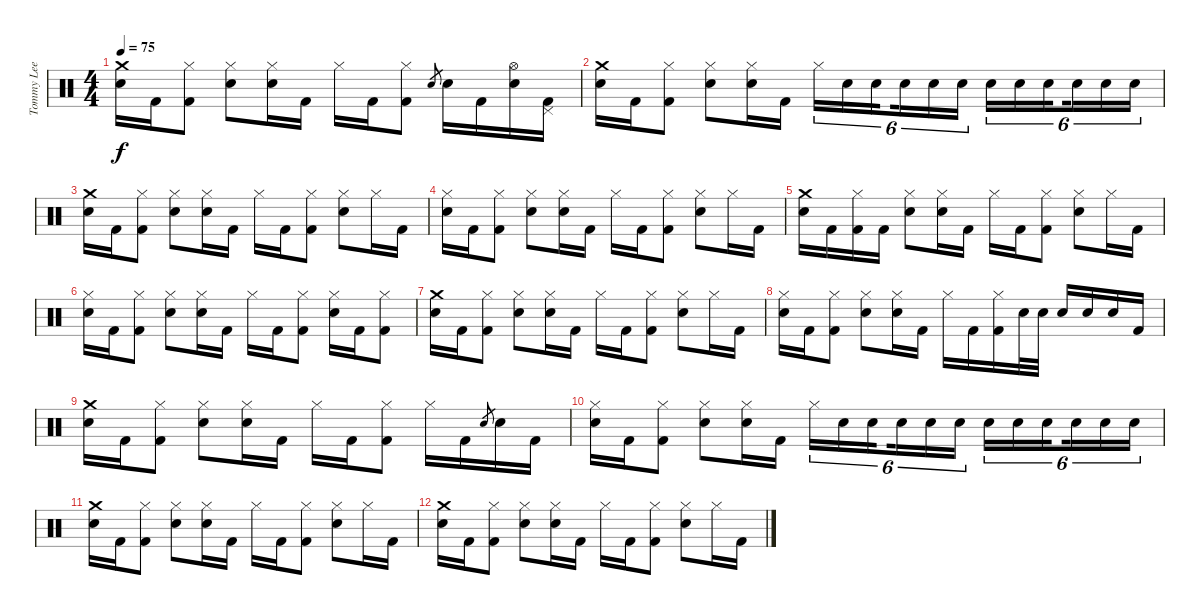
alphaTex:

\track ("Tommy Lee - Drums" "Tommy Lee ") {instrument percussion}
\staff {score}
\articulation defaults
\ts (4 4)
\tempo 75
\clef neutral
\ks c
("Crash medium (hit)" "Snare (hit) 2").16{dy f} "Kick (hit) 2".16 ("Hi-Hat (closed)" "Kick (hit) 2").8 ("Hi-Hat (closed)" "Snare (hit) 2").8 ("Hi-Hat (closed)" "Snare (hit) 2").16 "Kick (hit) 2".16 "Hi-Hat (closed)".16 "Kick (hit) 2".16 ("Hi-Hat (closed)" "Kick (hit) 2").8 "Snare (hit) 2".8{gr} "Snare (hit) 2".16 "Kick (hit) 2".16 ("Hi-Hat (open)" "Snare (hit) 2").16 ("Pedal Hi-Hat (hit)" "Kick (hit) 2").16 |
("Crash medium (hit)" "Snare (hit) 2").16 "Kick (hit) 2".16 ("Hi-Hat (closed)" "Kick (hit) 2").8 ("Hi-Hat (closed)" "Snare (hit) 2").8 ("Hi-Hat (closed)" "Snare (hit) 2").16 "Kick (hit) 2".16 "Hi-Hat (closed)".16{tu (6 4)} "Snare (hit) 2".16{tu (6 4)} "Snare (hit) 2".16{tu (6 4) beam splitsecondary} "Snare (hit) 2".16{tu (6 4)} "Snare (hit) 2".16{tu (6 4)} "Snare (hit) 2".16{tu (6 4)} "Snare (hit) 2".16{tu (6 4)} "Snare (hit) 2".16{tu (6 4)} "Snare (hit) 2".16{tu (6 4) beam splitsecondary} "Snare (hit) 2".16{tu (6 4)} "Snare (hit) 2".16{tu (6 4)} "Snare (hit) 2".16{tu (6 4)} |
("Crash medium (hit)" "Snare (hit) 2").16 "Kick (hit) 2".16 ("Hi-Hat (closed)" "Kick (hit) 2").8 ("Hi-Hat (closed)" "Snare (hit) 2").8 ("Hi-Hat (closed)" "Snare (hit) 2").16 "Kick (hit) 2".16 "Hi-Hat (closed)".16 "Kick (hit) 2".16 ("Hi-Hat (closed)" "Kick (hit) 2").8 ("Hi-Hat (closed)" "Snare (hit) 2").8 "Hi-Hat (closed)".16 "Kick (hit) 2".16 |
("Hi-Hat (closed)" "Snare (hit) 2").16 "Kick (hit) 2".16 ("Hi-Hat (closed)" "Kick (hit) 2").8 ("Hi-Hat (closed)" "Snare (hit) 2").8 ("Hi-Hat (closed)" "Snare (hit) 2").16 "Kick (hit) 2".16 "Hi-Hat (closed)".16 "Kick (hit) 2".16 ("Hi-Hat (closed)" "Kick (hit) 2").8 ("Hi-Hat (closed)" "Snare (hit) 2").8 "Hi-Hat (closed)".16 "Kick (hit) 2".16 |
("Crash medium (hit)" "Snare (hit) 2").16 "Kick (hit) 2".16 ("Hi-Hat (closed)" "Kick (hit) 2").16 "Kick (hit) 2".16 ("Hi-Hat (closed)" "Snare (hit) 2").8 ("Hi-Hat (closed)" "Snare (hit) 2").16 "Kick (hit) 2".16 "Hi-Hat (closed)".16 "Kick (hit) 2".16 ("Hi-Hat (closed)" "Kick (hit) 2").8 ("Hi-Hat (closed)" "Snare (hit) 2").8 "Hi-Hat (closed)".16 "Kick (hit) 2".16 |
("Hi-Hat (closed)" "Snare (hit) 2").16 "Kick (hit) 2".16 ("Hi-Hat (closed)" "Kick (hit) 2").8 ("Hi-Hat (closed)" "Snare (hit) 2").8 ("Hi-Hat (closed)" "Snare (hit) 2").16 "Kick (hit) 2".16 "Hi-Hat (closed)".16 "Kick (hit) 2".16 ("Hi-Hat (closed)" "Kick (hit) 2").8 ("Hi-Hat (closed)" "Snare (hit) 2").16 "Kick (hit) 2".16 ("Hi-Hat (closed)" "Kick (hit) 2").8 |
("Crash medium (hit)" "Snare (hit) 2").16 "Kick (hit) 2".16 ("Hi-Hat (closed)" "Kick (hit) 2").8 ("Hi-Hat (closed)" "Snare (hit) 2").8 ("Hi-Hat (closed)" "Snare (hit) 2").16 "Kick (hit) 2".16 "Hi-Hat (closed)".16 "Kick (hit) 2".16 ("Hi-Hat (closed)" "Kick (hit) 2").8 ("Hi-Hat (closed)" "Snare (hit) 2").8 "Hi-Hat (closed)".16 "Kick (hit) 2".16 |
("Hi-Hat (closed)" "Snare (hit) 2").16 "Kick (hit) 2".16 ("Hi-Hat (closed)" "Kick (hit) 2").8 ("Hi-Hat (closed)" "Snare (hit) 2").8 ("Hi-Hat (closed)" "Snare (hit) 2").16 "Kick (hit) 2".16 "Hi-Hat (closed)".16 "Kick (hit) 2".16 ("Hi-Hat (closed)" "Kick (hit) 2").16 "Snare (hit) 2".32 "Snare (hit) 2".32 "Snare (hit) 2".16 "Snare (hit) 2".16 "Snare (hit) 2".16 "Kick (hit) 2".16 |
("Crash medium (hit)" "Snare (hit) 2").16 "Kick (hit) 2".16 ("Hi-Hat (closed)" "Kick (hit) 2").8 ("Hi-Hat (closed)" "Snare (hit) 2").8 ("Hi-Hat (closed)" "Snare (hit) 2").16 "Kick (hit) 2".16 "Hi-Hat (closed)".16 "Kick (hit) 2".16 ("Hi-Hat (closed)" "Kick (hit) 2").8 "Hi-Hat (closed)".16 "Kick (hit) 2".16 "Snare (hit) 2".8{gr} "Snare (hit) 2".16 "Kick (hit) 2".16 |
("Hi-Hat (closed)" "Snare (hit) 2").16 "Kick (hit) 2".16 ("Hi-Hat (closed)" "Kick (hit) 2").8 ("Hi-Hat (closed)" "Snare (hit) 2").8 ("Hi-Hat (closed)" "Snare (hit) 2").16 "Kick (hit) 2".16 "Hi-Hat (closed)".16{tu (6 4)} "Snare (hit) 2".16{tu (6 4)} "Snare (hit) 2".16{tu (6 4) beam splitsecondary} "Snare (hit) 2".16{tu (6 4)} "Snare (hit) 2".16{tu (6 4)} "Snare (hit) 2".16{tu (6 4)} "Snare (hit) 2".16{tu (6 4)} "Snare (hit) 2".16{tu (6 4)} "Snare (hit) 2".16{tu (6 4) beam splitsecondary} "Snare (hit) 2".16{tu (6 4)} "Snare (hit) 2".16{tu (6 4)} "Snare (hit) 2".16{tu (6 4)} |
("Crash medium (hit)" "Snare (hit) 2").16 "Kick (hit) 2".16 ("Hi-Hat (closed)" "Kick (hit) 2").8 ("Hi-Hat (closed)" "Snare (hit) 2").8 ("Hi-Hat (closed)" "Snare (hit) 2").16 "Kick (hit) 2".16 "Hi-Hat (closed)".16 "Kick (hit) 2".16 ("Hi-Hat (closed)" "Kick (hit) 2").8 ("Hi-Hat (closed)" "Snare (hit) 2").8 "Hi-Hat (closed)".16 "Kick (hit) 2".16 |
("Crash medium (hit)" "Snare (hit) 2").16 "Kick (hit) 2".16 ("Hi-Hat (closed)" "Kick (hit) 2").8 ("Hi-Hat (closed)" "Snare (hit) 2").8 ("Hi-Hat (closed)" "Snare (hit) 2").16 "Kick (hit) 2".16 "Hi-Hat (closed)".16 "Kick (hit) 2".16 ("Hi-Hat (closed)" "Kick (hit) 2").8 ("Hi-Hat (closed)" "Snare (hit) 2").8 "Hi-Hat (closed)".16 "Kick (hit) 2".16
